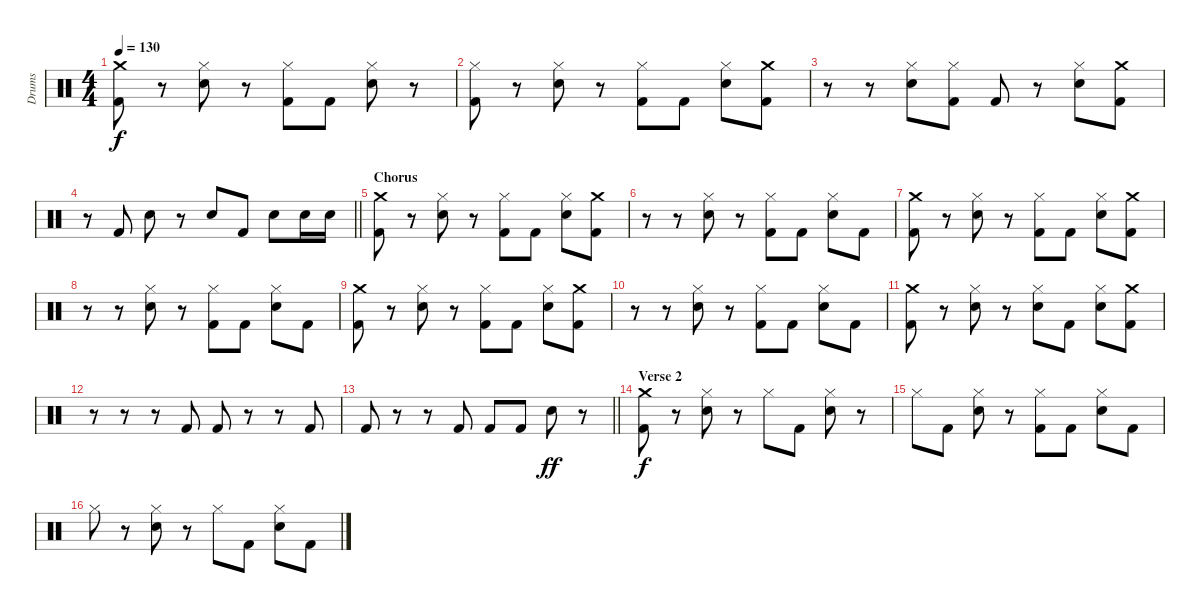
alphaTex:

\track ("Drums" "Drums") {instrument percussion}
\staff {score}
\articulation defaults
\ts (4 4)
\tempo 130
\clef neutral
\ks c
("Crash medium (hit)" "Kick (hit) 2").8{dy f} r.8 ("Hi-Hat (closed)" "Snare (hit) 2").8 r.8 ("Hi-Hat (closed)" "Kick (hit) 2").8 "Kick (hit) 2".8 ("Hi-Hat (closed)" "Snare (hit) 2").8 r.8 |
("Hi-Hat (closed)" "Kick (hit) 2").8 r.8 ("Hi-Hat (closed)" "Snare (hit) 2").8 r.8 ("Hi-Hat (closed)" "Kick (hit) 2").8 "Kick (hit) 2".8 ("Hi-Hat (closed)" "Snare (hit) 2").8 ("Crash medium (hit)" "Kick (hit) 2").8 |
r.8 r.8 ("Hi-Hat (closed)" "Snare (hit) 2").8 ("Hi-Hat (closed)" "Kick (hit) 2").8 "Kick (hit) 2".8 r.8 ("Hi-Hat (closed)" "Snare (hit) 2").8 ("Crash medium (hit)" "Kick (hit) 2").8 |
\barLineRight lightlight
r.8 "Kick (hit) 2".8 "Snare (hit) 2".8 r.8 "Snare (hit) 2".8 "Kick (hit) 2".8 "Snare (hit) 2".8 "Snare (hit) 2".16 "Snare (hit) 2".16 |
\section ("" "Chorus")
("Crash medium (hit)" "Kick (hit) 2").8 r.8 ("Hi-Hat (closed)" "Snare (hit) 2").8 r.8 ("Hi-Hat (closed)" "Kick (hit) 2").8 "Kick (hit) 2".8 ("Hi-Hat (closed)" "Snare (hit) 2").8 ("Crash medium (hit)" "Kick (hit) 2").8 |
r.8 r.8 ("Hi-Hat (closed)" "Snare (hit) 2").8 r.8 ("Hi-Hat (closed)" "Kick (hit) 2").8 "Kick (hit) 2".8 ("Hi-Hat (closed)" "Snare (hit) 2").8 "Kick (hit) 2".8 |
("Crash medium (hit)" "Kick (hit) 2").8 r.8 ("Hi-Hat (closed)" "Snare (hit) 2").8 r.8 ("Hi-Hat (closed)" "Kick (hit) 2").8 "Kick (hit) 2".8 ("Hi-Hat (closed)" "Snare (hit) 2").8 ("Crash medium (hit)" "Kick (hit) 2").8 |
r.8 r.8 ("Hi-Hat (closed)" "Snare (hit) 2").8 r.8 ("Hi-Hat (closed)" "Kick (hit) 2").8 "Kick (hit) 2".8 ("Hi-Hat (closed)" "Snare (hit) 2").8 "Kick (hit) 2".8 |
("Crash medium (hit)" "Kick (hit) 2").8 r.8 ("Hi-Hat (closed)" "Snare (hit) 2").8 r.8 ("Hi-Hat (closed)" "Kick (hit) 2").8 "Kick (hit) 2".8 ("Hi-Hat (closed)" "Snare (hit) 2").8 ("Crash medium (hit)" "Kick (hit) 2").8 |
r.8 r.8 ("Hi-Hat (closed)" "Snare (hit) 2").8 r.8 ("Hi-Hat (closed)" "Kick (hit) 2").8 "Kick (hit) 2".8 ("Hi-Hat (closed)" "Snare (hit) 2").8 "Kick (hit) 2".8 |
("Crash medium (hit)" "Kick (hit) 2").8 r.8 ("Hi-Hat (closed)" "Snare (hit) 2").8 r.8 ("Hi-Hat (closed)" "Snare (hit) 2").8 "Kick (hit) 2".8 ("Hi-Hat (closed)" "Snare (hit) 2").8 ("Crash medium (hit)" "Kick (hit) 2").8 |
r.8 r.8 r.8 "Kick (hit) 2".8 "Kick (hit) 2".8 r.8 r.8 "Kick (hit) 2".8 |
\barLineRight lightlight "Kick (hit) 2".8
r.8 r.8 "Kick (hit) 2".8 "Kick (hit) 2".8 "Kick (hit) 2".8 "Snare (hit) 2".8{dy ff} r.8 |
\section ("" "Verse 2")
("Crash medium (hit)" "Kick (hit) 2").8{dy f} r.8 ("Hi-Hat (closed)" "Snare (hit) 2").8 r.8 "Hi-Hat (closed)".8 "Kick (hit) 2".8 ("Hi-Hat (closed)" "Snare (hit) 2").8 r.8 |
"Hi-Hat (closed)".8 "Kick (hit) 2".8 ("Hi-Hat (closed)" "Snare (hit) 2").8 r.8 ("Hi-Hat (closed)" "Kick (hit) 2").8 "Kick (hit) 2".8 ("Hi-Hat (closed)" "Snare (hit) 2").8 "Kick (hit) 2".8 |
"Hi-Hat (closed)".8 r.8 ("Hi-Hat (closed)" "Snare (hit) 2").8 r.8 "Hi-Hat (closed)".8 "Kick (hit) 2".8 ("Hi-Hat (closed)" "Snare (hit) 2").8 "Kick (hit) 2".8
